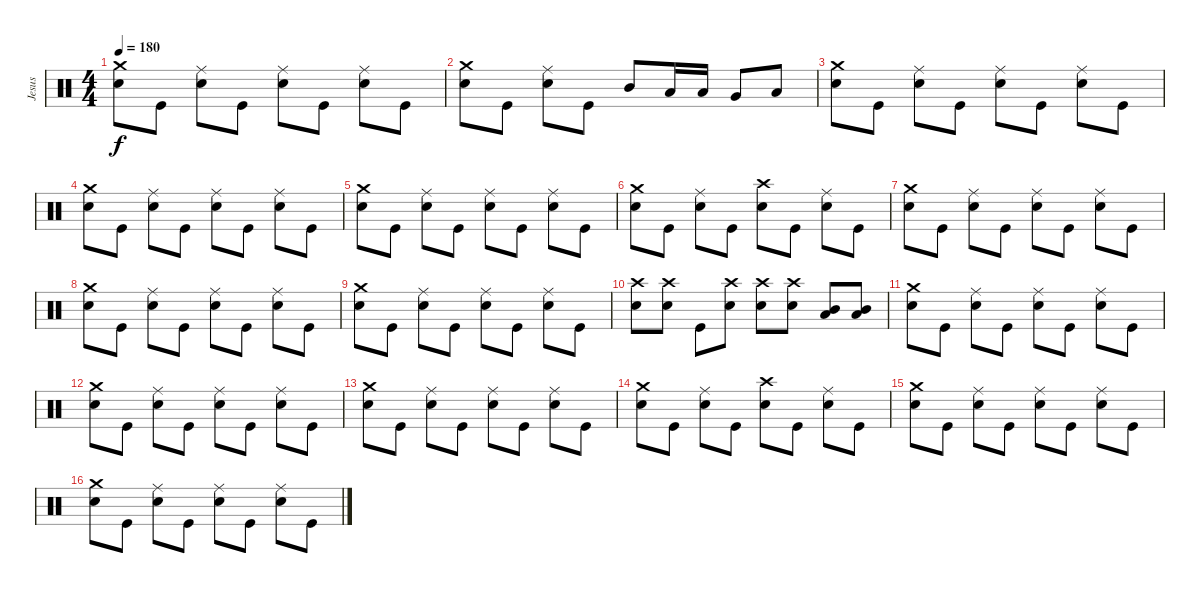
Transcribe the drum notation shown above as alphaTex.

\track ("Jesus" "Jesus") {instrument percussion}
\staff {score}
\articulation defaults
\ts (4 4)
\tempo 180
\clef neutral
\ks c
("Crash medium (hit)" "Snare (hit) 2").8{dy f} "Kick (hit)".8 ("Ride (middle)" "Snare (hit) 2").8 "Kick (hit)".8 ("Ride (middle)" "Snare (hit) 2").8 "Kick (hit)".8 ("Ride (middle)" "Snare (hit) 2").8 "Kick (hit)".8 |
("Crash medium (hit)" "Snare (hit) 2").8 "Kick (hit)".8 ("Ride (middle)" "Snare (hit) 2").8 "Kick (hit)".8 "Mid Tom (hit)".8 "Low Tom (hit)".16 "Low Tom (hit)".16 "Very Low Tom (hit)".8 "Low Floor Tom (hit)".8 |
("Crash medium (hit)" "Snare (hit) 2").8 "Kick (hit)".8 ("Ride (middle)" "Snare (hit) 2").8 "Kick (hit)".8 ("Ride (middle)" "Snare (hit) 2").8 "Kick (hit)".8 ("Ride (middle)" "Snare (hit) 2").8 "Kick (hit)".8 |
("Crash medium (hit)" "Snare (hit) 2").8 "Kick (hit)".8 ("Ride (middle)" "Snare (hit) 2").8 "Kick (hit)".8 ("Ride (middle)" "Snare (hit) 2").8 "Kick (hit)".8 ("Ride (middle)" "Snare (hit) 2").8 "Kick (hit)".8 |
("Crash medium (hit)" "Snare (hit) 2").8 "Kick (hit)".8 ("Ride (middle)" "Snare (hit) 2").8 "Kick (hit)".8 ("Ride (middle)" "Snare (hit) 2").8 "Kick (hit)".8 ("Ride (middle)" "Snare (hit) 2").8 "Kick (hit)".8 |
("Crash medium (hit)" "Snare (hit) 2").8 "Kick (hit)".8 ("Ride (middle)" "Snare (hit) 2").8 "Kick (hit)".8 ("Crash high (hit)" "Snare (hit) 2").8 "Kick (hit)".8 ("Ride (middle)" "Snare (hit) 2").8 "Kick (hit)".8 |
("Crash medium (hit)" "Snare (hit) 2").8 "Kick (hit)".8 ("Ride (middle)" "Snare (hit) 2").8 "Kick (hit)".8 ("Ride (middle)" "Snare (hit) 2").8 "Kick (hit)".8 ("Ride (middle)" "Snare (hit) 2").8 "Kick (hit)".8 |
("Crash medium (hit)" "Snare (hit) 2").8 "Kick (hit)".8 ("Ride (middle)" "Snare (hit) 2").8 "Kick (hit)".8 ("Ride (middle)" "Snare (hit) 2").8 "Kick (hit)".8 ("Ride (middle)" "Snare (hit) 2").8 "Kick (hit)".8 |
("Crash medium (hit)" "Snare (hit) 2").8 "Kick (hit)".8 ("Ride (middle)" "Snare (hit) 2").8 "Kick (hit)".8 ("Ride (middle)" "Snare (hit) 2").8 "Kick (hit)".8 ("Ride (middle)" "Snare (hit) 2").8 "Kick (hit)".8 |
("Crash high (hit)" "Snare (hit) 2").8 ("Crash high (hit)" "Snare (hit) 2").8 "Kick (hit)".8 ("Crash high (hit)" "Snare (hit) 2").8 ("Crash high (hit)" "Snare (hit) 2").8 ("Crash high (hit)" "Snare (hit) 2").8 ("Mid Tom (hit)" "Low Tom (hit)").8 ("Mid Tom (hit)" "Low Tom (hit)").8 |
("Crash medium (hit)" "Snare (hit) 2").8 "Kick (hit)".8 ("Ride (middle)" "Snare (hit) 2").8 "Kick (hit)".8 ("Ride (middle)" "Snare (hit) 2").8 "Kick (hit)".8 ("Ride (middle)" "Snare (hit) 2").8 "Kick (hit)".8 |
("Crash medium (hit)" "Snare (hit) 2").8 "Kick (hit)".8 ("Ride (middle)" "Snare (hit) 2").8 "Kick (hit)".8 ("Ride (middle)" "Snare (hit) 2").8 "Kick (hit)".8 ("Ride (middle)" "Snare (hit) 2").8 "Kick (hit)".8 |
("Crash medium (hit)" "Snare (hit) 2").8 "Kick (hit)".8 ("Ride (middle)" "Snare (hit) 2").8 "Kick (hit)".8 ("Ride (middle)" "Snare (hit) 2").8 "Kick (hit)".8 ("Ride (middle)" "Snare (hit) 2").8 "Kick (hit)".8 |
("Crash medium (hit)" "Snare (hit) 2").8 "Kick (hit)".8 ("Ride (middle)" "Snare (hit) 2").8 "Kick (hit)".8 ("Crash high (hit)" "Snare (hit) 2").8 "Kick (hit)".8 ("Ride (middle)" "Snare (hit) 2").8 "Kick (hit)".8 |
("Crash medium (hit)" "Snare (hit) 2").8 "Kick (hit)".8 ("Ride (middle)" "Snare (hit) 2").8 "Kick (hit)".8 ("Ride (middle)" "Snare (hit) 2").8 "Kick (hit)".8 ("Ride (middle)" "Snare (hit) 2").8 "Kick (hit)".8 |
("Crash medium (hit)" "Snare (hit) 2").8 "Kick (hit)".8 ("Ride (middle)" "Snare (hit) 2").8 "Kick (hit)".8 ("Ride (middle)" "Snare (hit) 2").8 "Kick (hit)".8 ("Ride (middle)" "Snare (hit) 2").8 "Kick (hit)".8
